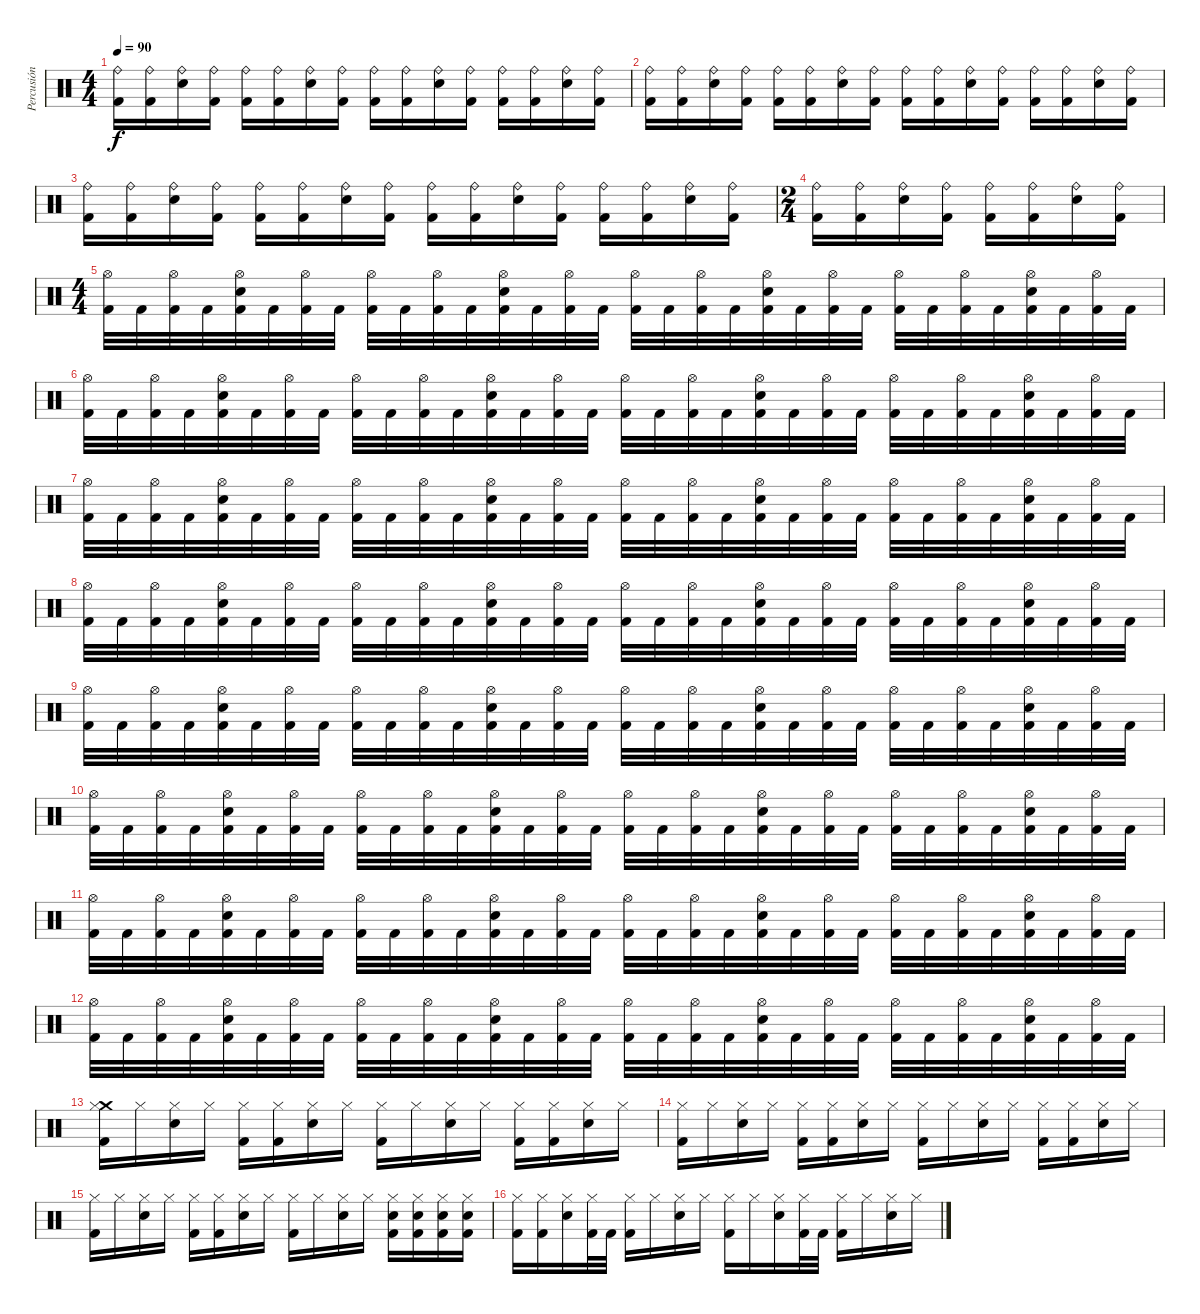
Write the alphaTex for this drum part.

\track ("Percusión" "Percusión") {instrument percussion}
\staff {score}
\articulation defaults
\ts (4 4)
\tempo 90
\clef neutral
\ks c
("Ride (bell)" "Kick (hit) 2").16{dy f} ("Ride (bell)" "Kick (hit) 2").16 ("Ride (bell)" "Electric Snare (hit)").16 ("Ride (bell)" "Kick (hit) 2").16 ("Ride (bell)" "Kick (hit) 2").16 ("Ride (bell)" "Kick (hit) 2").16 ("Ride (bell)" "Electric Snare (hit)").16 ("Ride (bell)" "Kick (hit) 2").16 ("Ride (bell)" "Kick (hit) 2").16 ("Ride (bell)" "Kick (hit) 2").16 ("Ride (bell)" "Electric Snare (hit)").16 ("Ride (bell)" "Kick (hit) 2").16 ("Ride (bell)" "Kick (hit) 2").16 ("Ride (bell)" "Kick (hit) 2").16 ("Ride (bell)" "Electric Snare (hit)").16 ("Ride (bell)" "Kick (hit) 2").16 |
("Ride (bell)" "Kick (hit) 2").16 ("Ride (bell)" "Kick (hit) 2").16 ("Ride (bell)" "Electric Snare (hit)").16 ("Ride (bell)" "Kick (hit) 2").16 ("Ride (bell)" "Kick (hit) 2").16 ("Ride (bell)" "Kick (hit) 2").16 ("Ride (bell)" "Electric Snare (hit)").16 ("Ride (bell)" "Kick (hit) 2").16 ("Ride (bell)" "Kick (hit) 2").16 ("Ride (bell)" "Kick (hit) 2").16 ("Ride (bell)" "Electric Snare (hit)").16 ("Ride (bell)" "Kick (hit) 2").16 ("Ride (bell)" "Kick (hit) 2").16 ("Ride (bell)" "Kick (hit) 2").16 ("Ride (bell)" "Electric Snare (hit)").16 ("Ride (bell)" "Kick (hit) 2").16 |
("Ride (bell)" "Kick (hit) 2").16 ("Ride (bell)" "Kick (hit) 2").16 ("Ride (bell)" "Electric Snare (hit)").16 ("Ride (bell)" "Kick (hit) 2").16 ("Ride (bell)" "Kick (hit) 2").16 ("Ride (bell)" "Kick (hit) 2").16 ("Ride (bell)" "Electric Snare (hit)").16 ("Ride (bell)" "Kick (hit) 2").16 ("Ride (bell)" "Kick (hit) 2").16 ("Ride (bell)" "Kick (hit) 2").16 ("Ride (bell)" "Electric Snare (hit)").16 ("Ride (bell)" "Kick (hit) 2").16 ("Ride (bell)" "Kick (hit) 2").16 ("Ride (bell)" "Kick (hit) 2").16 ("Ride (bell)" "Electric Snare (hit)").16 ("Ride (bell)" "Kick (hit) 2").16 |
\ts (2 4)
("Ride (bell)" "Kick (hit) 2").16 ("Ride (bell)" "Kick (hit) 2").16 ("Ride (bell)" "Electric Snare (hit)").16 ("Ride (bell)" "Kick (hit) 2").16 ("Ride (bell)" "Kick (hit) 2").16 ("Ride (bell)" "Kick (hit) 2").16 ("Ride (bell)" "Electric Snare (hit)").16 ("Ride (bell)" "Kick (hit) 2").16 |
\ts (4 4)
("Hi-Hat (open)" "Kick (hit) 2").32 "Kick (hit) 2".32 ("Hi-Hat (open)" "Kick (hit) 2").32 "Kick (hit) 2".32 ("Hi-Hat (open)" "Electric Snare (hit)" "Kick (hit) 2").32 "Kick (hit) 2".32 ("Hi-Hat (open)" "Kick (hit) 2").32 "Kick (hit) 2".32 ("Hi-Hat (open)" "Kick (hit) 2").32 "Kick (hit) 2".32 ("Hi-Hat (open)" "Kick (hit) 2").32 "Kick (hit) 2".32 ("Hi-Hat (open)" "Electric Snare (hit)" "Kick (hit) 2").32 "Kick (hit) 2".32 ("Hi-Hat (open)" "Kick (hit) 2").32 "Kick (hit) 2".32 ("Hi-Hat (open)" "Kick (hit) 2").32 "Kick (hit) 2".32 ("Hi-Hat (open)" "Kick (hit) 2").32 "Kick (hit) 2".32 ("Hi-Hat (open)" "Electric Snare (hit)" "Kick (hit) 2").32 "Kick (hit) 2".32 ("Hi-Hat (open)" "Kick (hit) 2").32 "Kick (hit) 2".32 ("Hi-Hat (open)" "Kick (hit) 2").32 "Kick (hit) 2".32 ("Hi-Hat (open)" "Kick (hit) 2").32 "Kick (hit) 2".32 ("Hi-Hat (open)" "Electric Snare (hit)" "Kick (hit) 2").32 "Kick (hit) 2".32 ("Hi-Hat (open)" "Kick (hit) 2").32 "Kick (hit) 2".32 |
("Hi-Hat (open)" "Kick (hit) 2").32 "Kick (hit) 2".32 ("Hi-Hat (open)" "Kick (hit) 2").32 "Kick (hit) 2".32 ("Hi-Hat (open)" "Electric Snare (hit)" "Kick (hit) 2").32 "Kick (hit) 2".32 ("Hi-Hat (open)" "Kick (hit) 2").32 "Kick (hit) 2".32 ("Hi-Hat (open)" "Kick (hit) 2").32 "Kick (hit) 2".32 ("Hi-Hat (open)" "Kick (hit) 2").32 "Kick (hit) 2".32 ("Hi-Hat (open)" "Electric Snare (hit)" "Kick (hit) 2").32 "Kick (hit) 2".32 ("Hi-Hat (open)" "Kick (hit) 2").32 "Kick (hit) 2".32 ("Hi-Hat (open)" "Kick (hit) 2").32 "Kick (hit) 2".32 ("Hi-Hat (open)" "Kick (hit) 2").32 "Kick (hit) 2".32 ("Hi-Hat (open)" "Electric Snare (hit)" "Kick (hit) 2").32 "Kick (hit) 2".32 ("Hi-Hat (open)" "Kick (hit) 2").32 "Kick (hit) 2".32 ("Hi-Hat (open)" "Kick (hit) 2").32 "Kick (hit) 2".32 ("Hi-Hat (open)" "Kick (hit) 2").32 "Kick (hit) 2".32 ("Hi-Hat (open)" "Electric Snare (hit)" "Kick (hit) 2").32 "Kick (hit) 2".32 ("Hi-Hat (open)" "Kick (hit) 2").32 "Kick (hit) 2".32 |
("Hi-Hat (open)" "Kick (hit) 2").32 "Kick (hit) 2".32 ("Hi-Hat (open)" "Kick (hit) 2").32 "Kick (hit) 2".32 ("Hi-Hat (open)" "Electric Snare (hit)" "Kick (hit) 2").32 "Kick (hit) 2".32 ("Hi-Hat (open)" "Kick (hit) 2").32 "Kick (hit) 2".32 ("Hi-Hat (open)" "Kick (hit) 2").32 "Kick (hit) 2".32 ("Hi-Hat (open)" "Kick (hit) 2").32 "Kick (hit) 2".32 ("Hi-Hat (open)" "Electric Snare (hit)" "Kick (hit) 2").32 "Kick (hit) 2".32 ("Hi-Hat (open)" "Kick (hit) 2").32 "Kick (hit) 2".32 ("Hi-Hat (open)" "Kick (hit) 2").32 "Kick (hit) 2".32 ("Hi-Hat (open)" "Kick (hit) 2").32 "Kick (hit) 2".32 ("Hi-Hat (open)" "Electric Snare (hit)" "Kick (hit) 2").32 "Kick (hit) 2".32 ("Hi-Hat (open)" "Kick (hit) 2").32 "Kick (hit) 2".32 ("Hi-Hat (open)" "Kick (hit) 2").32 "Kick (hit) 2".32 ("Hi-Hat (open)" "Kick (hit) 2").32 "Kick (hit) 2".32 ("Hi-Hat (open)" "Electric Snare (hit)" "Kick (hit) 2").32 "Kick (hit) 2".32 ("Hi-Hat (open)" "Kick (hit) 2").32 "Kick (hit) 2".32 |
("Hi-Hat (open)" "Kick (hit) 2").32 "Kick (hit) 2".32 ("Hi-Hat (open)" "Kick (hit) 2").32 "Kick (hit) 2".32 ("Hi-Hat (open)" "Electric Snare (hit)" "Kick (hit) 2").32 "Kick (hit) 2".32 ("Hi-Hat (open)" "Kick (hit) 2").32 "Kick (hit) 2".32 ("Hi-Hat (open)" "Kick (hit) 2").32 "Kick (hit) 2".32 ("Hi-Hat (open)" "Kick (hit) 2").32 "Kick (hit) 2".32 ("Hi-Hat (open)" "Electric Snare (hit)" "Kick (hit) 2").32 "Kick (hit) 2".32 ("Hi-Hat (open)" "Kick (hit) 2").32 "Kick (hit) 2".32 ("Hi-Hat (open)" "Kick (hit) 2").32 "Kick (hit) 2".32 ("Hi-Hat (open)" "Kick (hit) 2").32 "Kick (hit) 2".32 ("Hi-Hat (open)" "Electric Snare (hit)" "Kick (hit) 2").32 "Kick (hit) 2".32 ("Hi-Hat (open)" "Kick (hit) 2").32 "Kick (hit) 2".32 ("Hi-Hat (open)" "Kick (hit) 2").32 "Kick (hit) 2".32 ("Hi-Hat (open)" "Kick (hit) 2").32 "Kick (hit) 2".32 ("Hi-Hat (open)" "Electric Snare (hit)" "Kick (hit) 2").32 "Kick (hit) 2".32 ("Hi-Hat (open)" "Kick (hit) 2").32 "Kick (hit) 2".32 |
("Hi-Hat (open)" "Kick (hit) 2").32 "Kick (hit) 2".32 ("Hi-Hat (open)" "Kick (hit) 2").32 "Kick (hit) 2".32 ("Hi-Hat (open)" "Electric Snare (hit)" "Kick (hit) 2").32 "Kick (hit) 2".32 ("Hi-Hat (open)" "Kick (hit) 2").32 "Kick (hit) 2".32 ("Hi-Hat (open)" "Kick (hit) 2").32 "Kick (hit) 2".32 ("Hi-Hat (open)" "Kick (hit) 2").32 "Kick (hit) 2".32 ("Hi-Hat (open)" "Electric Snare (hit)" "Kick (hit) 2").32 "Kick (hit) 2".32 ("Hi-Hat (open)" "Kick (hit) 2").32 "Kick (hit) 2".32 ("Hi-Hat (open)" "Kick (hit) 2").32 "Kick (hit) 2".32 ("Hi-Hat (open)" "Kick (hit) 2").32 "Kick (hit) 2".32 ("Hi-Hat (open)" "Electric Snare (hit)" "Kick (hit) 2").32 "Kick (hit) 2".32 ("Hi-Hat (open)" "Kick (hit) 2").32 "Kick (hit) 2".32 ("Hi-Hat (open)" "Kick (hit) 2").32 "Kick (hit) 2".32 ("Hi-Hat (open)" "Kick (hit) 2").32 "Kick (hit) 2".32 ("Hi-Hat (open)" "Electric Snare (hit)" "Kick (hit) 2").32 "Kick (hit) 2".32 ("Hi-Hat (open)" "Kick (hit) 2").32 "Kick (hit) 2".32 |
("Hi-Hat (open)" "Kick (hit) 2").32 "Kick (hit) 2".32 ("Hi-Hat (open)" "Kick (hit) 2").32 "Kick (hit) 2".32 ("Hi-Hat (open)" "Electric Snare (hit)" "Kick (hit) 2").32 "Kick (hit) 2".32 ("Hi-Hat (open)" "Kick (hit) 2").32 "Kick (hit) 2".32 ("Hi-Hat (open)" "Kick (hit) 2").32 "Kick (hit) 2".32 ("Hi-Hat (open)" "Kick (hit) 2").32 "Kick (hit) 2".32 ("Hi-Hat (open)" "Electric Snare (hit)" "Kick (hit) 2").32 "Kick (hit) 2".32 ("Hi-Hat (open)" "Kick (hit) 2").32 "Kick (hit) 2".32 ("Hi-Hat (open)" "Kick (hit) 2").32 "Kick (hit) 2".32 ("Hi-Hat (open)" "Kick (hit) 2").32 "Kick (hit) 2".32 ("Hi-Hat (open)" "Electric Snare (hit)" "Kick (hit) 2").32 "Kick (hit) 2".32 ("Hi-Hat (open)" "Kick (hit) 2").32 "Kick (hit) 2".32 ("Hi-Hat (open)" "Kick (hit) 2").32 "Kick (hit) 2".32 ("Hi-Hat (open)" "Kick (hit) 2").32 "Kick (hit) 2".32 ("Hi-Hat (open)" "Electric Snare (hit)" "Kick (hit) 2").32 "Kick (hit) 2".32 ("Hi-Hat (open)" "Kick (hit) 2").32 "Kick (hit) 2".32 |
("Hi-Hat (open)" "Kick (hit) 2").32 "Kick (hit) 2".32 ("Hi-Hat (open)" "Kick (hit) 2").32 "Kick (hit) 2".32 ("Hi-Hat (open)" "Electric Snare (hit)" "Kick (hit) 2").32 "Kick (hit) 2".32 ("Hi-Hat (open)" "Kick (hit) 2").32 "Kick (hit) 2".32 ("Hi-Hat (open)" "Kick (hit) 2").32 "Kick (hit) 2".32 ("Hi-Hat (open)" "Kick (hit) 2").32 "Kick (hit) 2".32 ("Hi-Hat (open)" "Electric Snare (hit)" "Kick (hit) 2").32 "Kick (hit) 2".32 ("Hi-Hat (open)" "Kick (hit) 2").32 "Kick (hit) 2".32 ("Hi-Hat (open)" "Kick (hit) 2").32 "Kick (hit) 2".32 ("Hi-Hat (open)" "Kick (hit) 2").32 "Kick (hit) 2".32 ("Hi-Hat (open)" "Electric Snare (hit)" "Kick (hit) 2").32 "Kick (hit) 2".32 ("Hi-Hat (open)" "Kick (hit) 2").32 "Kick (hit) 2".32 ("Hi-Hat (open)" "Kick (hit) 2").32 "Kick (hit) 2".32 ("Hi-Hat (open)" "Kick (hit) 2").32 "Kick (hit) 2".32 ("Hi-Hat (open)" "Electric Snare (hit)" "Kick (hit) 2").32 "Kick (hit) 2".32 ("Hi-Hat (open)" "Kick (hit) 2").32 "Kick (hit) 2".32 |
("Hi-Hat (open)" "Kick (hit) 2").32 "Kick (hit) 2".32 ("Hi-Hat (open)" "Kick (hit) 2").32 "Kick (hit) 2".32 ("Hi-Hat (open)" "Electric Snare (hit)" "Kick (hit) 2").32 "Kick (hit) 2".32 ("Hi-Hat (open)" "Kick (hit) 2").32 "Kick (hit) 2".32 ("Hi-Hat (open)" "Kick (hit) 2").32 "Kick (hit) 2".32 ("Hi-Hat (open)" "Kick (hit) 2").32 "Kick (hit) 2".32 ("Hi-Hat (open)" "Electric Snare (hit)" "Kick (hit) 2").32 "Kick (hit) 2".32 ("Hi-Hat (open)" "Kick (hit) 2").32 "Kick (hit) 2".32 ("Hi-Hat (open)" "Kick (hit) 2").32 "Kick (hit) 2".32 ("Hi-Hat (open)" "Kick (hit) 2").32 "Kick (hit) 2".32 ("Hi-Hat (open)" "Electric Snare (hit)" "Kick (hit) 2").32 "Kick (hit) 2".32 ("Hi-Hat (open)" "Kick (hit) 2").32 "Kick (hit) 2".32 ("Hi-Hat (open)" "Kick (hit) 2").32 "Kick (hit) 2".32 ("Hi-Hat (open)" "Kick (hit) 2").32 "Kick (hit) 2".32 ("Hi-Hat (open)" "Electric Snare (hit)" "Kick (hit) 2").32 "Kick (hit) 2".32 ("Hi-Hat (open)" "Kick (hit) 2").32 "Kick (hit) 2".32 |
("Crash medium (hit)" "Hi-Hat (closed)" "Kick (hit) 2").16 "Hi-Hat (closed)".16 ("Hi-Hat (closed)" "Electric Snare (hit)").16 "Hi-Hat (closed)".16 ("Hi-Hat (closed)" "Kick (hit) 2").16 ("Hi-Hat (closed)" "Kick (hit) 2").16 ("Hi-Hat (closed)" "Electric Snare (hit)").16 "Hi-Hat (closed)".16 ("Hi-Hat (closed)" "Kick (hit) 2").16 "Hi-Hat (closed)".16 ("Hi-Hat (closed)" "Electric Snare (hit)").16 "Hi-Hat (closed)".16 ("Hi-Hat (closed)" "Kick (hit) 2").16 ("Hi-Hat (closed)" "Kick (hit) 2").16 ("Hi-Hat (closed)" "Electric Snare (hit)").16 "Hi-Hat (closed)".16 |
("Hi-Hat (closed)" "Kick (hit) 2").16 "Hi-Hat (closed)".16 ("Hi-Hat (closed)" "Electric Snare (hit)").16 "Hi-Hat (closed)".16 ("Hi-Hat (closed)" "Kick (hit) 2").16 ("Hi-Hat (closed)" "Kick (hit) 2").16 ("Hi-Hat (closed)" "Electric Snare (hit)").16 "Hi-Hat (closed)".16 ("Hi-Hat (closed)" "Kick (hit) 2").16 "Hi-Hat (closed)".16 ("Hi-Hat (closed)" "Electric Snare (hit)").16 "Hi-Hat (closed)".16 ("Hi-Hat (closed)" "Kick (hit) 2").16 ("Hi-Hat (closed)" "Kick (hit) 2").16 ("Hi-Hat (closed)" "Electric Snare (hit)").16 "Hi-Hat (closed)".16 |
("Hi-Hat (closed)" "Kick (hit) 2").16 "Hi-Hat (closed)".16 ("Hi-Hat (closed)" "Electric Snare (hit)").16 "Hi-Hat (closed)".16 ("Hi-Hat (closed)" "Kick (hit) 2").16 ("Hi-Hat (closed)" "Kick (hit) 2").16 ("Hi-Hat (closed)" "Electric Snare (hit)").16 "Hi-Hat (closed)".16 ("Hi-Hat (closed)" "Kick (hit) 2").16 "Hi-Hat (closed)".16 ("Hi-Hat (closed)" "Electric Snare (hit)").16 "Hi-Hat (closed)".16 ("Hi-Hat (closed)" "Electric Snare (hit)" "Kick (hit) 2").16 ("Hi-Hat (closed)" "Electric Snare (hit)" "Kick (hit) 2").16 ("Hi-Hat (closed)" "Electric Snare (hit)" "Kick (hit) 2").16 ("Hi-Hat (closed)" "Electric Snare (hit)" "Kick (hit) 2").16 |
("Hi-Hat (closed)" "Kick (hit) 2").16 ("Hi-Hat (closed)" "Kick (hit) 2").16 ("Hi-Hat (closed)" "Electric Snare (hit)").16 ("Hi-Hat (closed)" "Kick (hit) 2").32 "Kick (hit) 2".32 ("Hi-Hat (closed)" "Kick (hit) 2").16 "Hi-Hat (closed)".16 ("Hi-Hat (closed)" "Electric Snare (hit)").16 "Hi-Hat (closed)".16 ("Hi-Hat (closed)" "Kick (hit) 2").16 "Hi-Hat (closed)".16 ("Hi-Hat (closed)" "Electric Snare (hit)").16 ("Hi-Hat (closed)" "Kick (hit) 2").32 "Kick (hit) 2".32 ("Hi-Hat (closed)" "Kick (hit) 2").16 "Hi-Hat (closed)".16 ("Hi-Hat (closed)" "Electric Snare (hit)").16 "Hi-Hat (closed)".16
